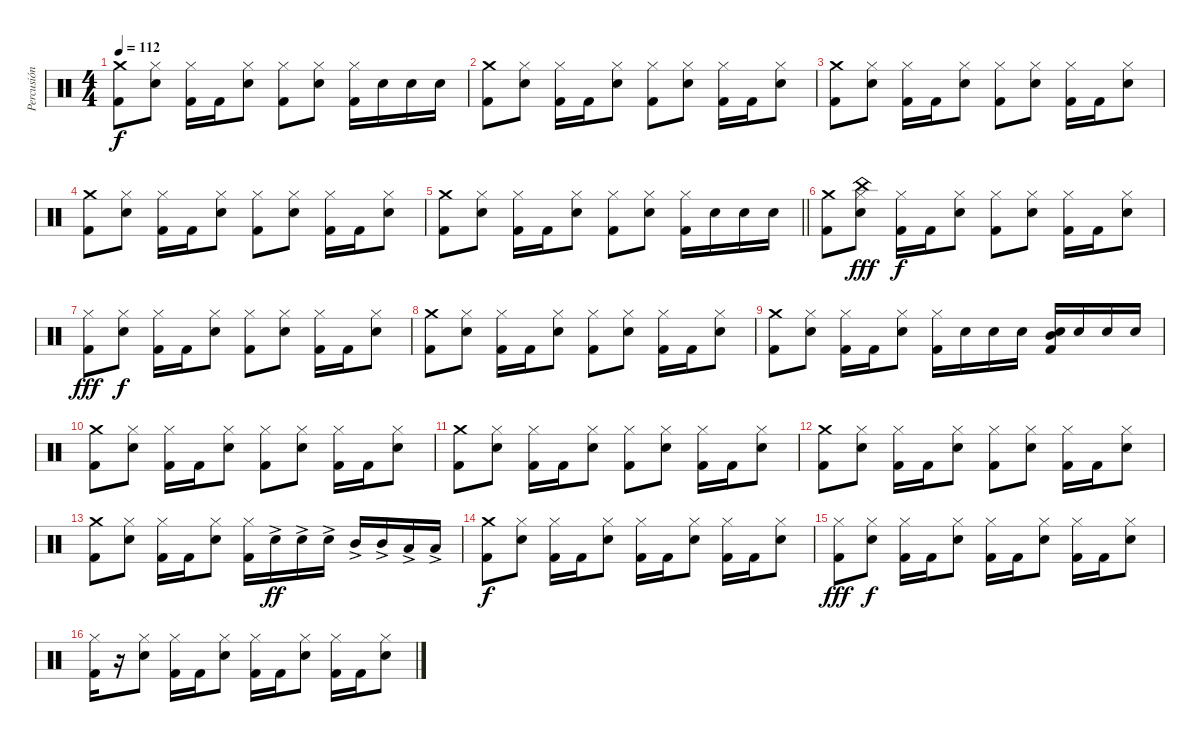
\track ("Percusión" "Percusión") {instrument percussion}
\staff {score}
\articulation defaults
\ts (4 4)
\tempo 112
\clef neutral
\ks c
("Crash medium (hit)" "Kick (hit) 2").8{dy f} ("Hi-Hat (closed)" "Electric Snare (hit)").8 ("Hi-Hat (closed)" "Kick (hit) 2").16 "Kick (hit) 2".16 ("Hi-Hat (closed)" "Electric Snare (hit)").8 ("Hi-Hat (closed)" "Kick (hit) 2").8 ("Hi-Hat (closed)" "Electric Snare (hit)").8 ("Hi-Hat (closed)" "Kick (hit) 2").16 "Electric Snare (hit)".16 "Electric Snare (hit)".16 "Electric Snare (hit)".16 |
("Crash medium (hit)" "Kick (hit) 2").8 ("Hi-Hat (closed)" "Electric Snare (hit)").8 ("Hi-Hat (closed)" "Kick (hit) 2").16 "Kick (hit) 2".16 ("Hi-Hat (closed)" "Electric Snare (hit)").8 ("Hi-Hat (closed)" "Kick (hit) 2").8 ("Hi-Hat (closed)" "Electric Snare (hit)").8 ("Hi-Hat (closed)" "Kick (hit) 2").16 "Kick (hit) 2".16 ("Hi-Hat (closed)" "Electric Snare (hit)").8 |
("Crash medium (hit)" "Kick (hit) 2").8 ("Hi-Hat (closed)" "Electric Snare (hit)").8 ("Hi-Hat (closed)" "Kick (hit) 2").16 "Kick (hit) 2".16 ("Hi-Hat (closed)" "Electric Snare (hit)").8 ("Hi-Hat (closed)" "Kick (hit) 2").8 ("Hi-Hat (closed)" "Electric Snare (hit)").8 ("Hi-Hat (closed)" "Kick (hit) 2").16 "Kick (hit) 2".16 ("Hi-Hat (closed)" "Electric Snare (hit)").8 |
("Crash medium (hit)" "Kick (hit) 2").8 ("Hi-Hat (closed)" "Electric Snare (hit)").8 ("Hi-Hat (closed)" "Kick (hit) 2").16 "Kick (hit) 2".16 ("Hi-Hat (closed)" "Electric Snare (hit)").8 ("Hi-Hat (closed)" "Kick (hit) 2").8 ("Hi-Hat (closed)" "Electric Snare (hit)").8 ("Hi-Hat (closed)" "Kick (hit) 2").16 "Kick (hit) 2".16 ("Hi-Hat (closed)" "Electric Snare (hit)").8 |
\barLineRight lightlight
("Crash medium (hit)" "Kick (hit) 2").8 ("Hi-Hat (closed)" "Electric Snare (hit)").8 ("Hi-Hat (closed)" "Kick (hit) 2").16 "Kick (hit) 2".16 ("Hi-Hat (closed)" "Electric Snare (hit)").8 ("Hi-Hat (closed)" "Kick (hit) 2").8 ("Hi-Hat (closed)" "Electric Snare (hit)").8 ("Hi-Hat (closed)" "Kick (hit) 2").16 "Electric Snare (hit)".16 "Electric Snare (hit)".16 "Electric Snare (hit)".16 |
\section ("" "")
("Crash medium (hit)" "Kick (hit) 2").8 ("China (hit)" "Hi-Hat (closed)" "Electric Snare (hit)").8{dy fff} ("Hi-Hat (closed)" "Kick (hit) 2").16{dy f} "Kick (hit) 2".16 ("Hi-Hat (closed)" "Electric Snare (hit)").8 ("Hi-Hat (closed)" "Kick (hit) 2").8 ("Hi-Hat (closed)" "Electric Snare (hit)").8 ("Hi-Hat (closed)" "Kick (hit) 2").16 "Kick (hit) 2".16 ("Hi-Hat (closed)" "Electric Snare (hit)").8 |
("Hi-Hat (closed)" "Kick (hit) 2").8{dy fff} ("Hi-Hat (closed)" "Electric Snare (hit)").8{dy f} ("Hi-Hat (closed)" "Kick (hit) 2").16 "Kick (hit) 2".16 ("Hi-Hat (closed)" "Electric Snare (hit)").8 ("Hi-Hat (closed)" "Kick (hit) 2").8 ("Hi-Hat (closed)" "Electric Snare (hit)").8 ("Hi-Hat (closed)" "Kick (hit) 2").16 "Kick (hit) 2".16 ("Hi-Hat (closed)" "Electric Snare (hit)").8 |
("Crash medium (hit)" "Kick (hit) 2").8 ("Hi-Hat (closed)" "Electric Snare (hit)").8 ("Hi-Hat (closed)" "Kick (hit) 2").16 "Kick (hit) 2".16 ("Hi-Hat (closed)" "Electric Snare (hit)").8 ("Hi-Hat (closed)" "Kick (hit) 2").8 ("Hi-Hat (closed)" "Electric Snare (hit)").8 ("Hi-Hat (closed)" "Kick (hit) 2").16 "Kick (hit) 2".16 ("Hi-Hat (closed)" "Electric Snare (hit)").8 |
("Crash medium (hit)" "Kick (hit) 2").8 ("Hi-Hat (closed)" "Electric Snare (hit)").8 ("Hi-Hat (closed)" "Kick (hit) 2").16 "Kick (hit) 2".16 ("Hi-Hat (closed)" "Electric Snare (hit)").8 ("Hi-Hat (closed)" "Kick (hit) 2").16 "Electric Snare (hit)".16 "Electric Snare (hit)".16 "Electric Snare (hit)".16 ("Mid Tom (hit)" "Electric Snare (hit)" "Kick (hit) 2").16 "Electric Snare (hit)".16 "Electric Snare (hit)".16 "Electric Snare (hit)".16 |
("Crash medium (hit)" "Kick (hit) 2").8 ("Hi-Hat (closed)" "Electric Snare (hit)").8 ("Hi-Hat (closed)" "Kick (hit) 2").16 "Kick (hit) 2".16 ("Hi-Hat (closed)" "Electric Snare (hit)").8 ("Hi-Hat (closed)" "Kick (hit) 2").8 ("Hi-Hat (closed)" "Electric Snare (hit)").8 ("Hi-Hat (closed)" "Kick (hit) 2").16 "Kick (hit) 2".16 ("Hi-Hat (closed)" "Electric Snare (hit)").8 |
("Crash medium (hit)" "Kick (hit) 2").8 ("Hi-Hat (closed)" "Electric Snare (hit)").8 ("Hi-Hat (closed)" "Kick (hit) 2").16 "Kick (hit) 2".16 ("Hi-Hat (closed)" "Electric Snare (hit)").8 ("Hi-Hat (closed)" "Kick (hit) 2").8 ("Hi-Hat (closed)" "Electric Snare (hit)").8 ("Hi-Hat (closed)" "Kick (hit) 2").16 "Kick (hit) 2".16 ("Hi-Hat (closed)" "Electric Snare (hit)").8 |
("Crash medium (hit)" "Kick (hit) 2").8 ("Hi-Hat (closed)" "Electric Snare (hit)").8 ("Hi-Hat (closed)" "Kick (hit) 2").16 "Kick (hit) 2".16 ("Hi-Hat (closed)" "Electric Snare (hit)").8 ("Hi-Hat (closed)" "Kick (hit) 2").8 ("Hi-Hat (closed)" "Electric Snare (hit)").8 ("Hi-Hat (closed)" "Kick (hit) 2").16 "Kick (hit) 2".16 ("Hi-Hat (closed)" "Electric Snare (hit)").8 |
("Crash medium (hit)" "Kick (hit) 2").8 ("Hi-Hat (closed)" "Electric Snare (hit)").8 ("Hi-Hat (closed)" "Kick (hit) 2").16 "Kick (hit) 2".16 ("Hi-Hat (closed)" "Electric Snare (hit)").8 ("Hi-Hat (closed)" "Kick (hit) 2").16 "Electric Snare (hit)"{ac}.16{dy ff} "Electric Snare (hit)"{ac}.16 "Electric Snare (hit)"{ac}.16 "Mid Tom (hit)"{ac}.16 "Mid Tom (hit)"{ac}.16 "Low Tom (hit)"{ac}.16 "Low Tom (hit)"{ac}.16 |
("Crash medium (hit)" "Kick (hit) 2").8{dy f} ("Hi-Hat (closed)" "Electric Snare (hit)").8 ("Hi-Hat (closed)" "Kick (hit) 2").16 "Kick (hit) 2".16 ("Hi-Hat (closed)" "Electric Snare (hit)").8 ("Hi-Hat (closed)" "Kick (hit) 2").16 "Kick (hit) 2".16 ("Hi-Hat (closed)" "Electric Snare (hit)").8 ("Hi-Hat (closed)" "Kick (hit) 2").16 "Kick (hit) 2".16 ("Hi-Hat (closed)" "Electric Snare (hit)").8 |
("Hi-Hat (closed)" "Kick (hit) 2").8{dy fff} ("Hi-Hat (closed)" "Electric Snare (hit)").8{dy f} ("Hi-Hat (closed)" "Kick (hit) 2").16 "Kick (hit) 2".16 ("Hi-Hat (closed)" "Electric Snare (hit)").8 ("Hi-Hat (closed)" "Kick (hit) 2").16 "Kick (hit) 2".16 ("Hi-Hat (closed)" "Electric Snare (hit)").8 ("Hi-Hat (closed)" "Kick (hit) 2").16 "Kick (hit) 2".16 ("Hi-Hat (closed)" "Electric Snare (hit)").8 |
("Hi-Hat (closed)" "Kick (hit) 2").16 r.16 ("Hi-Hat (closed)" "Electric Snare (hit)").8 ("Hi-Hat (closed)" "Kick (hit) 2").16 "Kick (hit) 2".16 ("Hi-Hat (closed)" "Electric Snare (hit)").8 ("Hi-Hat (closed)" "Kick (hit) 2").16 "Kick (hit) 2".16 ("Hi-Hat (closed)" "Electric Snare (hit)").8 ("Hi-Hat (closed)" "Kick (hit) 2").16 "Kick (hit) 2".16 ("Hi-Hat (closed)" "Electric Snare (hit)").8
